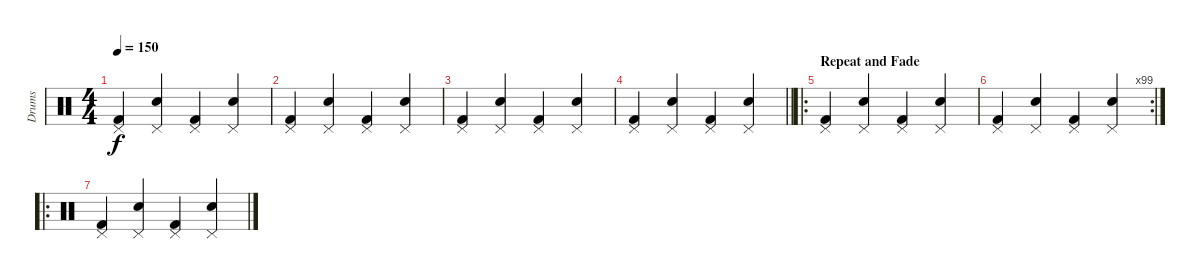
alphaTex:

\track ("Drums" "Drums") {instrument percussion}
\staff {score}
\articulation defaults
\ts (4 4)
\tempo 150
\clef neutral
\ks c
("Kick (hit) 2" "Pedal Hi-Hat (hit)").4{dy f} ("Snare (hit) 2" "Pedal Hi-Hat (hit)").4 ("Kick (hit) 2" "Pedal Hi-Hat (hit)").4 ("Snare (hit) 2" "Pedal Hi-Hat (hit)").4 |
("Kick (hit) 2" "Pedal Hi-Hat (hit)").4 ("Snare (hit) 2" "Pedal Hi-Hat (hit)").4 ("Kick (hit) 2" "Pedal Hi-Hat (hit)").4 ("Snare (hit) 2" "Pedal Hi-Hat (hit)").4 |
("Kick (hit) 2" "Pedal Hi-Hat (hit)").4 ("Snare (hit) 2" "Pedal Hi-Hat (hit)").4 ("Kick (hit) 2" "Pedal Hi-Hat (hit)").4 ("Snare (hit) 2" "Pedal Hi-Hat (hit)").4 |
\barLineRight lightlight
("Kick (hit) 2" "Pedal Hi-Hat (hit)").4 ("Snare (hit) 2" "Pedal Hi-Hat (hit)").4 ("Kick (hit) 2" "Pedal Hi-Hat (hit)").4 ("Snare (hit) 2" "Pedal Hi-Hat (hit)").4 |
\ro
\section ("" "Repeat and Fade")
("Kick (hit) 2" "Pedal Hi-Hat (hit)").4 ("Snare (hit) 2" "Pedal Hi-Hat (hit)").4 ("Kick (hit) 2" "Pedal Hi-Hat (hit)").4 ("Snare (hit) 2" "Pedal Hi-Hat (hit)").4 |
\rc 99
("Kick (hit) 2" "Pedal Hi-Hat (hit)").4 ("Snare (hit) 2" "Pedal Hi-Hat (hit)").4 ("Kick (hit) 2" "Pedal Hi-Hat (hit)").4 ("Snare (hit) 2" "Pedal Hi-Hat (hit)").4 |
\ro
("Kick (hit) 2" "Pedal Hi-Hat (hit)").4 ("Snare (hit) 2" "Pedal Hi-Hat (hit)").4 ("Kick (hit) 2" "Pedal Hi-Hat (hit)").4 ("Snare (hit) 2" "Pedal Hi-Hat (hit)").4
